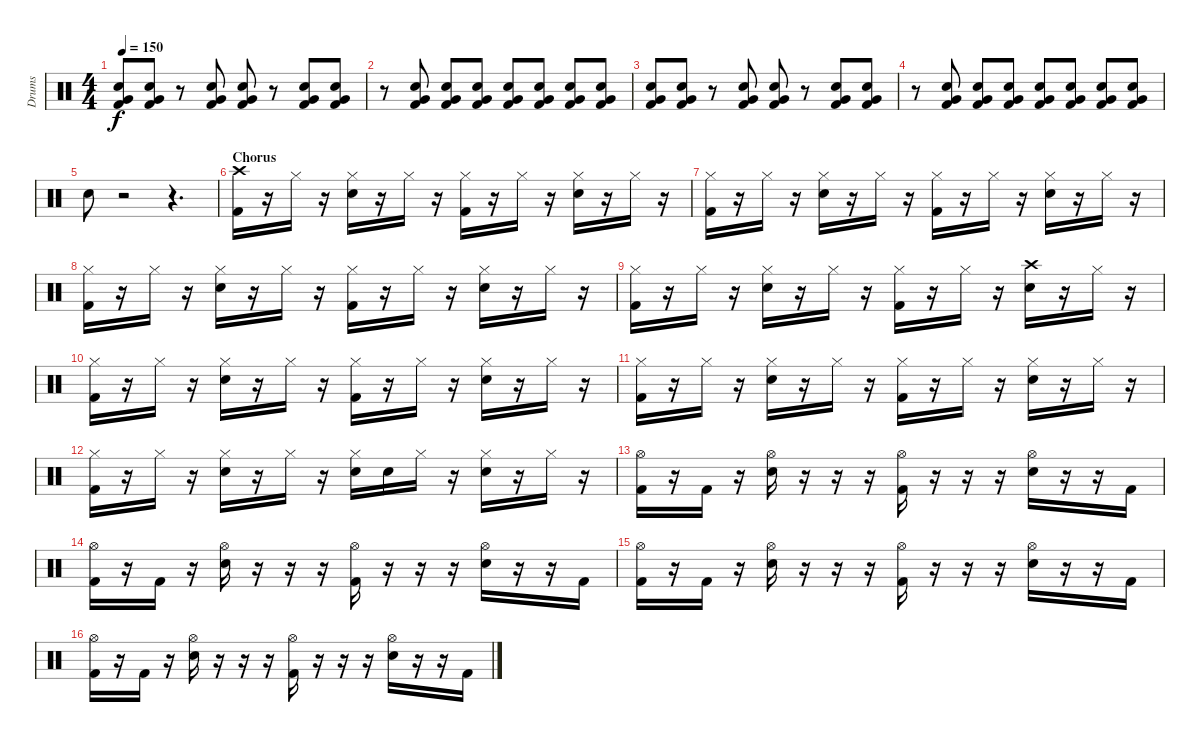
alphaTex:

\track ("Drums" "Drums") {instrument percussion}
\staff {score}
\articulation defaults
\ts (4 4)
\tempo 150
\clef neutral
\ks c
("Electric Snare (hit)" "Very Low Tom (hit)" "Kick (hit) 2").8{dy f} ("Electric Snare (hit)" "Very Low Tom (hit)" "Kick (hit) 2").8 r.8 ("Electric Snare (hit)" "Very Low Tom (hit)" "Kick (hit) 2").8 ("Electric Snare (hit)" "Very Low Tom (hit)" "Kick (hit) 2").8 r.8 ("Electric Snare (hit)" "Very Low Tom (hit)" "Kick (hit) 2").8 ("Electric Snare (hit)" "Very Low Tom (hit)" "Kick (hit) 2").8 |
r.8 ("Electric Snare (hit)" "Very Low Tom (hit)" "Kick (hit) 2").8 ("Electric Snare (hit)" "Very Low Tom (hit)" "Kick (hit) 2").8 ("Electric Snare (hit)" "Very Low Tom (hit)" "Kick (hit) 2").8 ("Electric Snare (hit)" "Very Low Tom (hit)" "Kick (hit) 2").8 ("Electric Snare (hit)" "Very Low Tom (hit)" "Kick (hit) 2").8 ("Electric Snare (hit)" "Very Low Tom (hit)" "Kick (hit) 2").8 ("Electric Snare (hit)" "Very Low Tom (hit)" "Kick (hit) 2").8 |
("Electric Snare (hit)" "Very Low Tom (hit)" "Kick (hit) 2").8 ("Electric Snare (hit)" "Very Low Tom (hit)" "Kick (hit) 2").8 r.8 ("Electric Snare (hit)" "Very Low Tom (hit)" "Kick (hit) 2").8 ("Electric Snare (hit)" "Very Low Tom (hit)" "Kick (hit) 2").8 r.8 ("Electric Snare (hit)" "Very Low Tom (hit)" "Kick (hit) 2").8 ("Electric Snare (hit)" "Very Low Tom (hit)" "Kick (hit) 2").8 |
r.8 ("Electric Snare (hit)" "Very Low Tom (hit)" "Kick (hit) 2").8 ("Electric Snare (hit)" "Very Low Tom (hit)" "Kick (hit) 2").8 ("Electric Snare (hit)" "Very Low Tom (hit)" "Kick (hit) 2").8 ("Electric Snare (hit)" "Very Low Tom (hit)" "Kick (hit) 2").8 ("Electric Snare (hit)" "Very Low Tom (hit)" "Kick (hit) 2").8 ("Electric Snare (hit)" "Very Low Tom (hit)" "Kick (hit) 2").8 ("Electric Snare (hit)" "Very Low Tom (hit)" "Kick (hit) 2").8 |
"Electric Snare (hit)".8 r.2 r.4{d} |
\section ("" "Chorus")
("Crash high (hit)" "Kick (hit) 2").16 r.16 "Hi-Hat (closed)".16 r.16 ("Hi-Hat (closed)" "Electric Snare (hit)").16 r.16 "Hi-Hat (closed)".16 r.16 ("Hi-Hat (closed)" "Kick (hit) 2").16 r.16 "Hi-Hat (closed)".16 r.16 ("Hi-Hat (closed)" "Electric Snare (hit)").16 r.16 "Hi-Hat (closed)".16 r.16 |
("Hi-Hat (closed)" "Kick (hit) 2").16 r.16 "Hi-Hat (closed)".16 r.16 ("Hi-Hat (closed)" "Electric Snare (hit)").16 r.16 "Hi-Hat (closed)".16 r.16 ("Hi-Hat (closed)" "Kick (hit) 2").16 r.16 "Hi-Hat (closed)".16 r.16 ("Hi-Hat (closed)" "Electric Snare (hit)").16 r.16 "Hi-Hat (closed)".16 r.16 |
("Hi-Hat (closed)" "Kick (hit) 2").16 r.16 "Hi-Hat (closed)".16 r.16 ("Hi-Hat (closed)" "Electric Snare (hit)").16 r.16 "Hi-Hat (closed)".16 r.16 ("Hi-Hat (closed)" "Kick (hit) 2").16 r.16 "Hi-Hat (closed)".16 r.16 ("Hi-Hat (closed)" "Electric Snare (hit)").16 r.16 "Hi-Hat (closed)".16 r.16 |
("Hi-Hat (closed)" "Kick (hit) 2").16 r.16 "Hi-Hat (closed)".16 r.16 ("Hi-Hat (closed)" "Electric Snare (hit)").16 r.16 "Hi-Hat (closed)".16 r.16 ("Hi-Hat (closed)" "Kick (hit) 2").16 r.16 "Hi-Hat (closed)".16 r.16 ("Crash high (hit)" "Electric Snare (hit)").16 r.16 "Hi-Hat (closed)".16 r.16 |
("Hi-Hat (closed)" "Kick (hit) 2").16 r.16 "Hi-Hat (closed)".16 r.16 ("Hi-Hat (closed)" "Electric Snare (hit)").16 r.16 "Hi-Hat (closed)".16 r.16 ("Hi-Hat (closed)" "Kick (hit) 2").16 r.16 "Hi-Hat (closed)".16 r.16 ("Hi-Hat (closed)" "Electric Snare (hit)").16 r.16 "Hi-Hat (closed)".16 r.16 |
("Hi-Hat (closed)" "Kick (hit) 2").16 r.16 "Hi-Hat (closed)".16 r.16 ("Hi-Hat (closed)" "Electric Snare (hit)").16 r.16 "Hi-Hat (closed)".16 r.16 ("Hi-Hat (closed)" "Kick (hit) 2").16 r.16 "Hi-Hat (closed)".16 r.16 ("Hi-Hat (closed)" "Electric Snare (hit)").16 r.16 "Hi-Hat (closed)".16 r.16 |
("Hi-Hat (closed)" "Kick (hit) 2").16 r.16 "Hi-Hat (closed)".16 r.16 ("Hi-Hat (closed)" "Electric Snare (hit)").16 r.16 "Hi-Hat (closed)".16 r.16 ("Hi-Hat (closed)" "Electric Snare (hit)").16 "Electric Snare (hit)".16 "Hi-Hat (closed)".16 r.16 ("Hi-Hat (closed)" "Electric Snare (hit)").16 r.16 "Hi-Hat (closed)".16 r.16 |
("Hi-Hat (open)" "Kick (hit) 2").16 r.16 "Kick (hit) 2".16 r.16 ("Hi-Hat (open)" "Electric Snare (hit)").16 r.16 r.16 r.16 ("Hi-Hat (open)" "Kick (hit) 2").16 r.16 r.16 r.16 ("Hi-Hat (open)" "Electric Snare (hit)").16 r.16 r.16 "Kick (hit) 2".16 |
("Hi-Hat (open)" "Kick (hit) 2").16 r.16 "Kick (hit) 2".16 r.16 ("Hi-Hat (open)" "Electric Snare (hit)").16 r.16 r.16 r.16 ("Hi-Hat (open)" "Kick (hit) 2").16 r.16 r.16 r.16 ("Hi-Hat (open)" "Electric Snare (hit)").16 r.16 r.16 "Kick (hit) 2".16 |
("Hi-Hat (open)" "Kick (hit) 2").16 r.16 "Kick (hit) 2".16 r.16 ("Hi-Hat (open)" "Electric Snare (hit)").16 r.16 r.16 r.16 ("Hi-Hat (open)" "Kick (hit) 2").16 r.16 r.16 r.16 ("Hi-Hat (open)" "Electric Snare (hit)").16 r.16 r.16 "Kick (hit) 2".16 |
("Hi-Hat (open)" "Kick (hit) 2").16 r.16 "Kick (hit) 2".16 r.16 ("Hi-Hat (open)" "Electric Snare (hit)").16 r.16 r.16 r.16 ("Hi-Hat (open)" "Kick (hit) 2").16 r.16 r.16 r.16 ("Hi-Hat (open)" "Electric Snare (hit)").16 r.16 r.16 "Kick (hit) 2".16
